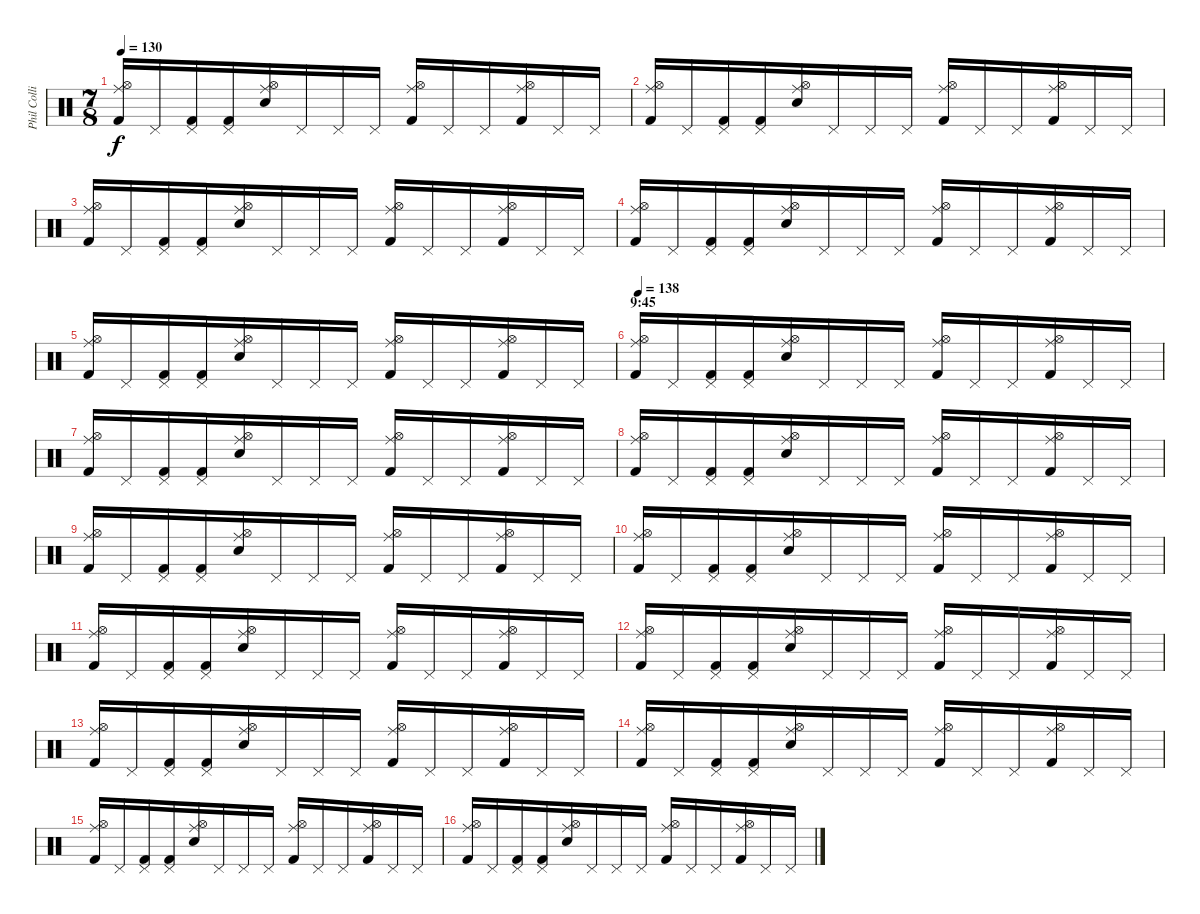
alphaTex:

\track ("Phil Collins (drums)" "Phil Colli") {instrument percussion}
\staff {score}
\articulation defaults
\ts (7 8)
\tempo 130
\clef neutral
\ks c
("Ride (middle)" "Hi-Hat (open)" "Kick (hit) 2").16{dy f} "Pedal Hi-Hat (hit)".16 ("Pedal Hi-Hat (hit)" "Kick (hit) 2").16 ("Pedal Hi-Hat (hit)" "Kick (hit) 2").16 ("Ride (middle)" "Hi-Hat (open)" "Electric Snare (hit)").16 "Pedal Hi-Hat (hit)".16 "Pedal Hi-Hat (hit)".16 "Pedal Hi-Hat (hit)".16 ("Ride (middle)" "Hi-Hat (open)" "Kick (hit) 2").16 "Pedal Hi-Hat (hit)".16 "Pedal Hi-Hat (hit)".16 ("Ride (middle)" "Hi-Hat (open)" "Kick (hit) 2").16 "Pedal Hi-Hat (hit)".16 "Pedal Hi-Hat (hit)".16 |
("Ride (middle)" "Hi-Hat (open)" "Kick (hit) 2").16 "Pedal Hi-Hat (hit)".16 ("Pedal Hi-Hat (hit)" "Kick (hit) 2").16 ("Pedal Hi-Hat (hit)" "Kick (hit) 2").16 ("Ride (middle)" "Hi-Hat (open)" "Electric Snare (hit)").16 "Pedal Hi-Hat (hit)".16 "Pedal Hi-Hat (hit)".16 "Pedal Hi-Hat (hit)".16 ("Ride (middle)" "Hi-Hat (open)" "Kick (hit) 2").16 "Pedal Hi-Hat (hit)".16 "Pedal Hi-Hat (hit)".16 ("Ride (middle)" "Hi-Hat (open)" "Kick (hit) 2").16 "Pedal Hi-Hat (hit)".16 "Pedal Hi-Hat (hit)".16 |
("Ride (middle)" "Hi-Hat (open)" "Kick (hit) 2").16 "Pedal Hi-Hat (hit)".16 ("Pedal Hi-Hat (hit)" "Kick (hit) 2").16 ("Pedal Hi-Hat (hit)" "Kick (hit) 2").16 ("Ride (middle)" "Hi-Hat (open)" "Electric Snare (hit)").16 "Pedal Hi-Hat (hit)".16 "Pedal Hi-Hat (hit)".16 "Pedal Hi-Hat (hit)".16 ("Ride (middle)" "Hi-Hat (open)" "Kick (hit) 2").16 "Pedal Hi-Hat (hit)".16 "Pedal Hi-Hat (hit)".16 ("Ride (middle)" "Hi-Hat (open)" "Kick (hit) 2").16 "Pedal Hi-Hat (hit)".16 "Pedal Hi-Hat (hit)".16 |
("Ride (middle)" "Hi-Hat (open)" "Kick (hit) 2").16 "Pedal Hi-Hat (hit)".16 ("Pedal Hi-Hat (hit)" "Kick (hit) 2").16 ("Pedal Hi-Hat (hit)" "Kick (hit) 2").16 ("Ride (middle)" "Hi-Hat (open)" "Electric Snare (hit)").16 "Pedal Hi-Hat (hit)".16 "Pedal Hi-Hat (hit)".16 "Pedal Hi-Hat (hit)".16 ("Ride (middle)" "Hi-Hat (open)" "Kick (hit) 2").16 "Pedal Hi-Hat (hit)".16 "Pedal Hi-Hat (hit)".16 ("Ride (middle)" "Hi-Hat (open)" "Kick (hit) 2").16 "Pedal Hi-Hat (hit)".16 "Pedal Hi-Hat (hit)".16 |
("Ride (middle)" "Hi-Hat (open)" "Kick (hit) 2").16 "Pedal Hi-Hat (hit)".16 ("Pedal Hi-Hat (hit)" "Kick (hit) 2").16 ("Pedal Hi-Hat (hit)" "Kick (hit) 2").16 ("Ride (middle)" "Hi-Hat (open)" "Electric Snare (hit)").16 "Pedal Hi-Hat (hit)".16 "Pedal Hi-Hat (hit)".16 "Pedal Hi-Hat (hit)".16 ("Ride (middle)" "Hi-Hat (open)" "Kick (hit) 2").16 "Pedal Hi-Hat (hit)".16 "Pedal Hi-Hat (hit)".16 ("Ride (middle)" "Hi-Hat (open)" "Kick (hit) 2").16 "Pedal Hi-Hat (hit)".16 "Pedal Hi-Hat (hit)".16 |
\section ("" "9:45")
\tempo 138
("Ride (middle)" "Hi-Hat (open)" "Kick (hit) 2").16 "Pedal Hi-Hat (hit)".16 ("Pedal Hi-Hat (hit)" "Kick (hit) 2").16 ("Pedal Hi-Hat (hit)" "Kick (hit) 2").16 ("Ride (middle)" "Hi-Hat (open)" "Electric Snare (hit)").16 "Pedal Hi-Hat (hit)".16 "Pedal Hi-Hat (hit)".16 "Pedal Hi-Hat (hit)".16 ("Ride (middle)" "Hi-Hat (open)" "Kick (hit) 2").16 "Pedal Hi-Hat (hit)".16 "Pedal Hi-Hat (hit)".16 ("Ride (middle)" "Hi-Hat (open)" "Kick (hit) 2").16 "Pedal Hi-Hat (hit)".16 "Pedal Hi-Hat (hit)".16 |
("Ride (middle)" "Hi-Hat (open)" "Kick (hit) 2").16 "Pedal Hi-Hat (hit)".16 ("Pedal Hi-Hat (hit)" "Kick (hit) 2").16 ("Pedal Hi-Hat (hit)" "Kick (hit) 2").16 ("Ride (middle)" "Hi-Hat (open)" "Electric Snare (hit)").16 "Pedal Hi-Hat (hit)".16 "Pedal Hi-Hat (hit)".16 "Pedal Hi-Hat (hit)".16 ("Ride (middle)" "Hi-Hat (open)" "Kick (hit) 2").16 "Pedal Hi-Hat (hit)".16 "Pedal Hi-Hat (hit)".16 ("Ride (middle)" "Hi-Hat (open)" "Kick (hit) 2").16 "Pedal Hi-Hat (hit)".16 "Pedal Hi-Hat (hit)".16 |
("Ride (middle)" "Hi-Hat (open)" "Kick (hit) 2").16 "Pedal Hi-Hat (hit)".16 ("Pedal Hi-Hat (hit)" "Kick (hit) 2").16 ("Pedal Hi-Hat (hit)" "Kick (hit) 2").16 ("Ride (middle)" "Hi-Hat (open)" "Electric Snare (hit)").16 "Pedal Hi-Hat (hit)".16 "Pedal Hi-Hat (hit)".16 "Pedal Hi-Hat (hit)".16 ("Ride (middle)" "Hi-Hat (open)" "Kick (hit) 2").16 "Pedal Hi-Hat (hit)".16 "Pedal Hi-Hat (hit)".16 ("Ride (middle)" "Hi-Hat (open)" "Kick (hit) 2").16 "Pedal Hi-Hat (hit)".16 "Pedal Hi-Hat (hit)".16 |
("Ride (middle)" "Hi-Hat (open)" "Kick (hit) 2").16 "Pedal Hi-Hat (hit)".16 ("Pedal Hi-Hat (hit)" "Kick (hit) 2").16 ("Pedal Hi-Hat (hit)" "Kick (hit) 2").16 ("Ride (middle)" "Hi-Hat (open)" "Electric Snare (hit)").16 "Pedal Hi-Hat (hit)".16 "Pedal Hi-Hat (hit)".16 "Pedal Hi-Hat (hit)".16 ("Ride (middle)" "Hi-Hat (open)" "Kick (hit) 2").16 "Pedal Hi-Hat (hit)".16 "Pedal Hi-Hat (hit)".16 ("Ride (middle)" "Hi-Hat (open)" "Kick (hit) 2").16 "Pedal Hi-Hat (hit)".16 "Pedal Hi-Hat (hit)".16 |
("Ride (middle)" "Hi-Hat (open)" "Kick (hit) 2").16 "Pedal Hi-Hat (hit)".16 ("Pedal Hi-Hat (hit)" "Kick (hit) 2").16 ("Pedal Hi-Hat (hit)" "Kick (hit) 2").16 ("Ride (middle)" "Hi-Hat (open)" "Electric Snare (hit)").16 "Pedal Hi-Hat (hit)".16 "Pedal Hi-Hat (hit)".16 "Pedal Hi-Hat (hit)".16 ("Ride (middle)" "Hi-Hat (open)" "Kick (hit) 2").16 "Pedal Hi-Hat (hit)".16 "Pedal Hi-Hat (hit)".16 ("Ride (middle)" "Hi-Hat (open)" "Kick (hit) 2").16 "Pedal Hi-Hat (hit)".16 "Pedal Hi-Hat (hit)".16 |
("Ride (middle)" "Hi-Hat (open)" "Kick (hit) 2").16 "Pedal Hi-Hat (hit)".16 ("Pedal Hi-Hat (hit)" "Kick (hit) 2").16 ("Pedal Hi-Hat (hit)" "Kick (hit) 2").16 ("Ride (middle)" "Hi-Hat (open)" "Electric Snare (hit)").16 "Pedal Hi-Hat (hit)".16 "Pedal Hi-Hat (hit)".16 "Pedal Hi-Hat (hit)".16 ("Ride (middle)" "Hi-Hat (open)" "Kick (hit) 2").16 "Pedal Hi-Hat (hit)".16 "Pedal Hi-Hat (hit)".16 ("Ride (middle)" "Hi-Hat (open)" "Kick (hit) 2").16 "Pedal Hi-Hat (hit)".16 "Pedal Hi-Hat (hit)".16 |
("Ride (middle)" "Hi-Hat (open)" "Kick (hit) 2").16 "Pedal Hi-Hat (hit)".16 ("Pedal Hi-Hat (hit)" "Kick (hit) 2").16 ("Pedal Hi-Hat (hit)" "Kick (hit) 2").16 ("Ride (middle)" "Hi-Hat (open)" "Electric Snare (hit)").16 "Pedal Hi-Hat (hit)".16 "Pedal Hi-Hat (hit)".16 "Pedal Hi-Hat (hit)".16 ("Ride (middle)" "Hi-Hat (open)" "Kick (hit) 2").16 "Pedal Hi-Hat (hit)".16 "Pedal Hi-Hat (hit)".16 ("Ride (middle)" "Hi-Hat (open)" "Kick (hit) 2").16 "Pedal Hi-Hat (hit)".16 "Pedal Hi-Hat (hit)".16 |
("Ride (middle)" "Hi-Hat (open)" "Kick (hit) 2").16 "Pedal Hi-Hat (hit)".16 ("Pedal Hi-Hat (hit)" "Kick (hit) 2").16 ("Pedal Hi-Hat (hit)" "Kick (hit) 2").16 ("Ride (middle)" "Hi-Hat (open)" "Electric Snare (hit)").16 "Pedal Hi-Hat (hit)".16 "Pedal Hi-Hat (hit)".16 "Pedal Hi-Hat (hit)".16 ("Ride (middle)" "Hi-Hat (open)" "Kick (hit) 2").16 "Pedal Hi-Hat (hit)".16 "Pedal Hi-Hat (hit)".16 ("Ride (middle)" "Hi-Hat (open)" "Kick (hit) 2").16 "Pedal Hi-Hat (hit)".16 "Pedal Hi-Hat (hit)".16 |
("Ride (middle)" "Hi-Hat (open)" "Kick (hit) 2").16 "Pedal Hi-Hat (hit)".16 ("Pedal Hi-Hat (hit)" "Kick (hit) 2").16 ("Pedal Hi-Hat (hit)" "Kick (hit) 2").16 ("Ride (middle)" "Hi-Hat (open)" "Electric Snare (hit)").16 "Pedal Hi-Hat (hit)".16 "Pedal Hi-Hat (hit)".16 "Pedal Hi-Hat (hit)".16 ("Ride (middle)" "Hi-Hat (open)" "Kick (hit) 2").16 "Pedal Hi-Hat (hit)".16 "Pedal Hi-Hat (hit)".16 ("Ride (middle)" "Hi-Hat (open)" "Kick (hit) 2").16 "Pedal Hi-Hat (hit)".16 "Pedal Hi-Hat (hit)".16 |
("Ride (middle)" "Hi-Hat (open)" "Kick (hit) 2").16 "Pedal Hi-Hat (hit)".16 ("Pedal Hi-Hat (hit)" "Kick (hit) 2").16 ("Pedal Hi-Hat (hit)" "Kick (hit) 2").16 ("Ride (middle)" "Hi-Hat (open)" "Electric Snare (hit)").16 "Pedal Hi-Hat (hit)".16 "Pedal Hi-Hat (hit)".16 "Pedal Hi-Hat (hit)".16 ("Ride (middle)" "Hi-Hat (open)" "Kick (hit) 2").16 "Pedal Hi-Hat (hit)".16 "Pedal Hi-Hat (hit)".16 ("Ride (middle)" "Hi-Hat (open)" "Kick (hit) 2").16 "Pedal Hi-Hat (hit)".16 "Pedal Hi-Hat (hit)".16 |
("Ride (middle)" "Hi-Hat (open)" "Kick (hit) 2").16 "Pedal Hi-Hat (hit)".16 ("Pedal Hi-Hat (hit)" "Kick (hit) 2").16 ("Pedal Hi-Hat (hit)" "Kick (hit) 2").16 ("Ride (middle)" "Hi-Hat (open)" "Electric Snare (hit)").16 "Pedal Hi-Hat (hit)".16 "Pedal Hi-Hat (hit)".16 "Pedal Hi-Hat (hit)".16 ("Ride (middle)" "Hi-Hat (open)" "Kick (hit) 2").16 "Pedal Hi-Hat (hit)".16 "Pedal Hi-Hat (hit)".16 ("Ride (middle)" "Hi-Hat (open)" "Kick (hit) 2").16 "Pedal Hi-Hat (hit)".16 "Pedal Hi-Hat (hit)".16
